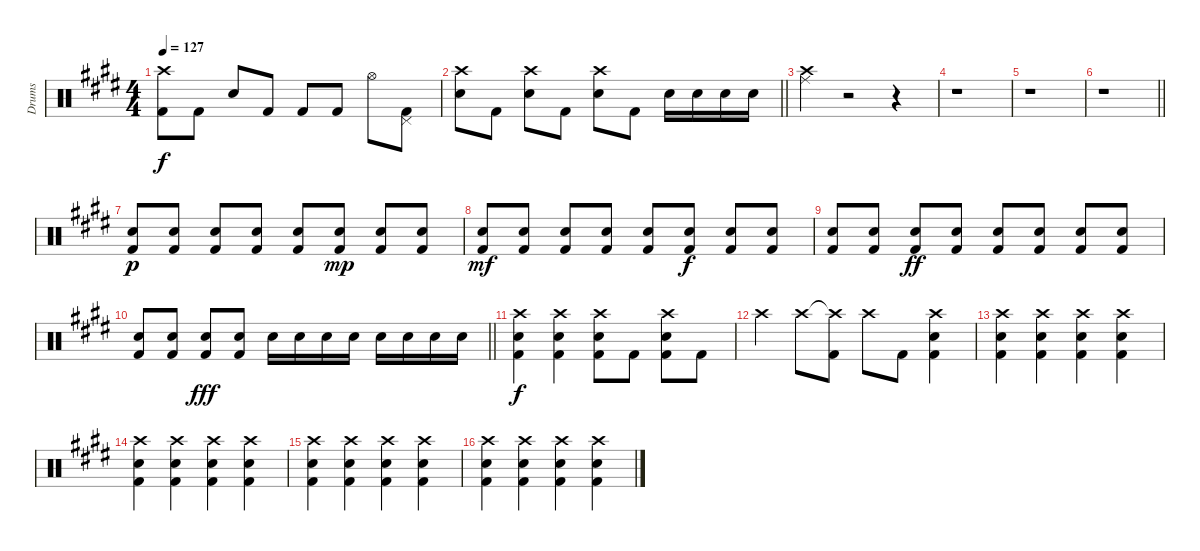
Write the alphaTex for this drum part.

\track ("Drums" "Drums") {instrument percussion}
\staff {score}
\articulation defaults
\ts (4 4)
\tempo 127
\clef neutral
\ks e
("Crash high (hit)" "Kick (hit) 2").8{dy f} "Kick (hit) 2".8 "Snare (hit) 2".8 "Kick (hit) 2".8 "Kick (hit) 2".8 "Kick (hit) 2".8 "Hi-Hat (open)".8 ("Pedal Hi-Hat (hit)" "Kick (hit) 2").8 |
\barLineRight lightlight
("Crash high (hit)" "Electric Snare (hit)").8 "Kick (hit) 2".8 ("Crash high (hit)" "Electric Snare (hit)").8 "Kick (hit) 2".8 ("Crash high (hit)" "Electric Snare (hit)").8 "Kick (hit) 2".8 "Electric Snare (hit)".16 "Electric Snare (hit)".16 "Electric Snare (hit)".16 "Electric Snare (hit)".16 |
("Ride (middle)" "Crash high (hit)").4 r.2 r.4 |
r.1 |
r.1 |
\barLineRight lightlight
r.1 |
("Electric Snare (hit)" "Kick (hit) 2").8{dy p} ("Electric Snare (hit)" "Kick (hit) 2").8 ("Electric Snare (hit)" "Kick (hit) 2").8 ("Electric Snare (hit)" "Kick (hit) 2").8 ("Electric Snare (hit)" "Kick (hit) 2").8 ("Electric Snare (hit)" "Kick (hit) 2").8{dy mp} ("Electric Snare (hit)" "Kick (hit) 2").8 ("Electric Snare (hit)" "Kick (hit) 2").8 |
("Electric Snare (hit)" "Kick (hit) 2").8{dy mf} ("Electric Snare (hit)" "Kick (hit) 2").8 ("Electric Snare (hit)" "Kick (hit) 2").8 ("Electric Snare (hit)" "Kick (hit) 2").8 ("Electric Snare (hit)" "Kick (hit) 2").8 ("Electric Snare (hit)" "Kick (hit) 2").8{dy f} ("Electric Snare (hit)" "Kick (hit) 2").8 ("Electric Snare (hit)" "Kick (hit) 2").8 |
("Electric Snare (hit)" "Kick (hit) 2").8 ("Electric Snare (hit)" "Kick (hit) 2").8 ("Electric Snare (hit)" "Kick (hit) 2").8{dy ff} ("Electric Snare (hit)" "Kick (hit) 2").8 ("Electric Snare (hit)" "Kick (hit) 2").8 ("Electric Snare (hit)" "Kick (hit) 2").8 ("Electric Snare (hit)" "Kick (hit) 2").8 ("Electric Snare (hit)" "Kick (hit) 2").8 |
\barLineRight lightlight
("Electric Snare (hit)" "Kick (hit) 2").8 ("Electric Snare (hit)" "Kick (hit) 2").8 ("Electric Snare (hit)" "Kick (hit) 2").8{dy fff} ("Electric Snare (hit)" "Kick (hit) 2").8 "Electric Snare (hit)".16 "Electric Snare (hit)".16 "Electric Snare (hit)".16 "Electric Snare (hit)".16 "Electric Snare (hit)".16 "Electric Snare (hit)".16 "Electric Snare (hit)".16 "Electric Snare (hit)".16 |
("Crash high (hit)" "Electric Snare (hit)" "Kick (hit) 2").4{dy f} ("Crash high (hit)" "Electric Snare (hit)" "Kick (hit) 2").4 ("Crash high (hit)" "Electric Snare (hit)" "Kick (hit) 2").8 "Kick (hit) 2".8 ("Crash high (hit)" "Electric Snare (hit)" "Kick (hit) 2").8 "Kick (hit) 2".8 |
"Crash high (hit)".4 "Crash high (hit)".8 ("Crash high (hit)"{t} "Kick (hit) 2").8 "Crash high (hit)".8 "Kick (hit) 2".8 ("Crash high (hit)" "Electric Snare (hit)" "Kick (hit) 2").4 |
("Crash high (hit)" "Electric Snare (hit)" "Kick (hit) 2").4 ("Crash high (hit)" "Electric Snare (hit)" "Kick (hit) 2").4 ("Crash high (hit)" "Electric Snare (hit)" "Kick (hit) 2").4 ("Crash high (hit)" "Electric Snare (hit)" "Kick (hit) 2").4 |
("Crash high (hit)" "Electric Snare (hit)" "Kick (hit) 2").4 ("Crash high (hit)" "Electric Snare (hit)" "Kick (hit) 2").4 ("Crash high (hit)" "Electric Snare (hit)" "Kick (hit) 2").4 ("Crash high (hit)" "Electric Snare (hit)" "Kick (hit) 2").4 |
("Crash high (hit)" "Electric Snare (hit)" "Kick (hit) 2").4 ("Crash high (hit)" "Electric Snare (hit)" "Kick (hit) 2").4 ("Crash high (hit)" "Electric Snare (hit)" "Kick (hit) 2").4 ("Crash high (hit)" "Electric Snare (hit)" "Kick (hit) 2").4 |
("Crash high (hit)" "Electric Snare (hit)" "Kick (hit) 2").4 ("Crash high (hit)" "Electric Snare (hit)" "Kick (hit) 2").4 ("Crash high (hit)" "Electric Snare (hit)" "Kick (hit) 2").4 ("Crash high (hit)" "Electric Snare (hit)" "Kick (hit) 2").4
